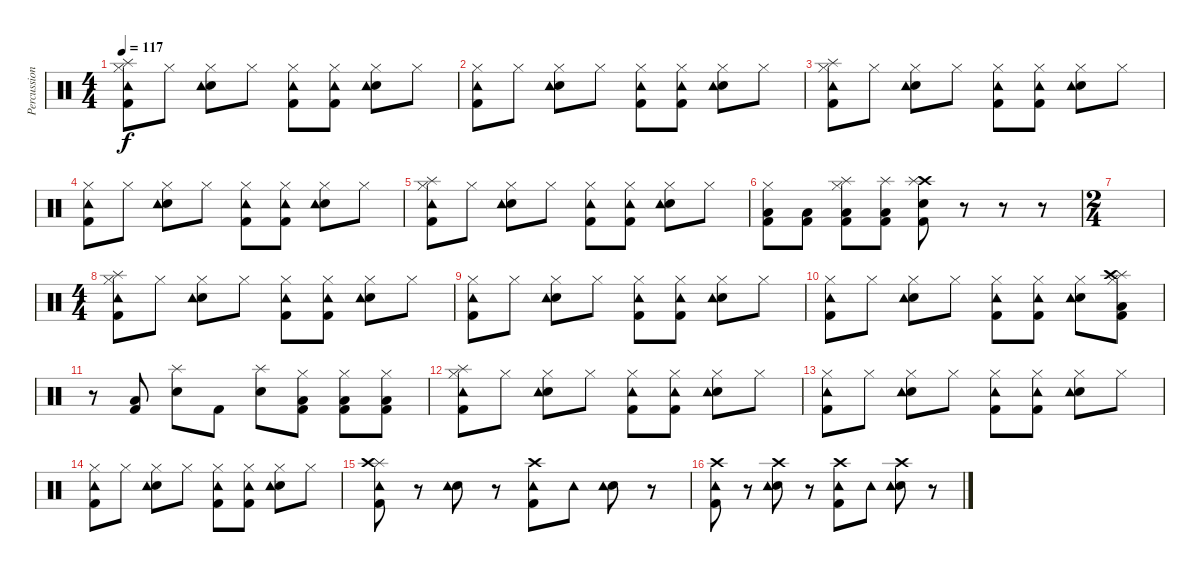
\track ("Percussion" "Percussion") {instrument percussion}
\staff {score}
\articulation defaults
\ts (4 4)
\tempo 117
\clef neutral
\ks c
("Hi-Hat (closed)" "Kick (hit) 2" "Splash (hit)" "Tambourine (hit)").8{dy f} "Hi-Hat (closed)".8 ("Hi-Hat (closed)" "Electric Snare (hit)" "Tambourine (hit)").8 "Hi-Hat (closed)".8 ("Hi-Hat (closed)" "Kick (hit) 2" "Tambourine (hit)").8 ("Hi-Hat (closed)" "Kick (hit) 2" "Tambourine (hit)").8 ("Hi-Hat (closed)" "Electric Snare (hit)" "Tambourine (hit)").8 "Hi-Hat (closed)".8 |
("Hi-Hat (closed)" "Kick (hit) 2" "Tambourine (hit)").8 "Hi-Hat (closed)".8 ("Hi-Hat (closed)" "Electric Snare (hit)" "Tambourine (hit)").8 "Hi-Hat (closed)".8 ("Hi-Hat (closed)" "Kick (hit) 2" "Tambourine (hit)").8 ("Hi-Hat (closed)" "Kick (hit) 2" "Tambourine (hit)").8 ("Hi-Hat (closed)" "Electric Snare (hit)" "Tambourine (hit)").8 "Hi-Hat (closed)".8 |
("Hi-Hat (closed)" "Kick (hit) 2" "Splash (hit)" "Tambourine (hit)").8 "Hi-Hat (closed)".8 ("Hi-Hat (closed)" "Electric Snare (hit)" "Tambourine (hit)").8 "Hi-Hat (closed)".8 ("Hi-Hat (closed)" "Kick (hit) 2" "Tambourine (hit)").8 ("Hi-Hat (closed)" "Kick (hit) 2" "Tambourine (hit)").8 ("Hi-Hat (closed)" "Electric Snare (hit)" "Tambourine (hit)").8 "Hi-Hat (closed)".8 |
("Hi-Hat (closed)" "Kick (hit) 2" "Tambourine (hit)").8 "Hi-Hat (closed)".8 ("Hi-Hat (closed)" "Electric Snare (hit)" "Tambourine (hit)").8 "Hi-Hat (closed)".8 ("Hi-Hat (closed)" "Kick (hit) 2" "Tambourine (hit)").8 ("Hi-Hat (closed)" "Kick (hit) 2" "Tambourine (hit)").8 ("Hi-Hat (closed)" "Electric Snare (hit)" "Tambourine (hit)").8 "Hi-Hat (closed)".8 |
("Hi-Hat (closed)" "Kick (hit) 2" "Splash (hit)" "Tambourine (hit)").8 "Hi-Hat (closed)".8 ("Hi-Hat (closed)" "Electric Snare (hit)" "Tambourine (hit)").8 "Hi-Hat (closed)".8 ("Hi-Hat (closed)" "Kick (hit) 2" "Tambourine (hit)").8 ("Hi-Hat (closed)" "Kick (hit) 2" "Tambourine (hit)").8 ("Hi-Hat (closed)" "Electric Snare (hit)" "Tambourine (hit)").8 "Hi-Hat (closed)".8 |
("Hi-Hat (closed)" "Low Tom (hit)" "Kick (hit) 2").8 ("Low Tom (hit)" "Kick (hit) 2").8 ("Hi-Hat (closed)" "Splash (hit)" "Low Tom (hit)" "Kick (hit) 2").8 ("Splash (hit)" "Low Tom (hit)" "Kick (hit) 2").8 ("Crash high (hit)" "Splash (hit)" "Electric Snare (hit)" "Kick (hit) 2").8 r.8 r.8 r.8 |
\ts (2 4)
|
\ts (4 4)
("Hi-Hat (closed)" "Kick (hit) 2" "Splash (hit)" "Tambourine (hit)").8 "Hi-Hat (closed)".8 ("Hi-Hat (closed)" "Electric Snare (hit)" "Tambourine (hit)").8 "Hi-Hat (closed)".8 ("Hi-Hat (closed)" "Kick (hit) 2" "Tambourine (hit)").8 ("Hi-Hat (closed)" "Kick (hit) 2" "Tambourine (hit)").8 ("Hi-Hat (closed)" "Electric Snare (hit)" "Tambourine (hit)").8 "Hi-Hat (closed)".8 |
("Hi-Hat (closed)" "Kick (hit) 2" "Tambourine (hit)").8 "Hi-Hat (closed)".8 ("Hi-Hat (closed)" "Electric Snare (hit)" "Tambourine (hit)").8 "Hi-Hat (closed)".8 ("Hi-Hat (closed)" "Kick (hit) 2" "Tambourine (hit)").8 ("Hi-Hat (closed)" "Kick (hit) 2" "Tambourine (hit)").8 ("Hi-Hat (closed)" "Electric Snare (hit)" "Tambourine (hit)").8 "Hi-Hat (closed)".8 |
("Hi-Hat (closed)" "Kick (hit) 2" "Tambourine (hit)").8 "Hi-Hat (closed)".8 ("Hi-Hat (closed)" "Electric Snare (hit)" "Tambourine (hit)").8 "Hi-Hat (closed)".8 ("Hi-Hat (closed)" "Kick (hit) 2" "Tambourine (hit)").8 ("Hi-Hat (closed)" "Kick (hit) 2" "Tambourine (hit)").8 ("Hi-Hat (closed)" "Electric Snare (hit)" "Tambourine (hit)").8 ("Hi-Hat (closed)" "Kick (hit) 2" "Splash (hit)" "Low Tom (hit)" "Crash high (hit)").8 |
r.8 ("Kick (hit) 2" "Low Tom (hit)").8 ("Electric Snare (hit)" "Splash (hit)").8 "Kick (hit) 2".8 ("Electric Snare (hit)" "Splash (hit)").8 ("Kick (hit) 2" "Low Tom (hit)" "Hi-Hat (closed)").8 ("Kick (hit) 2" "Low Tom (hit)" "Hi-Hat (closed)").8 ("Kick (hit) 2" "Low Tom (hit)" "Hi-Hat (closed)").8 |
("Hi-Hat (closed)" "Kick (hit) 2" "Splash (hit)" "Tambourine (hit)").8 "Hi-Hat (closed)".8 ("Hi-Hat (closed)" "Electric Snare (hit)" "Tambourine (hit)").8 "Hi-Hat (closed)".8 ("Hi-Hat (closed)" "Kick (hit) 2" "Tambourine (hit)").8 ("Hi-Hat (closed)" "Kick (hit) 2" "Tambourine (hit)").8 ("Hi-Hat (closed)" "Electric Snare (hit)" "Tambourine (hit)").8 "Hi-Hat (closed)".8 |
("Hi-Hat (closed)" "Kick (hit) 2" "Tambourine (hit)").8 "Hi-Hat (closed)".8 ("Hi-Hat (closed)" "Electric Snare (hit)" "Tambourine (hit)").8 "Hi-Hat (closed)".8 ("Hi-Hat (closed)" "Kick (hit) 2" "Tambourine (hit)").8 ("Hi-Hat (closed)" "Kick (hit) 2" "Tambourine (hit)").8 ("Hi-Hat (closed)" "Electric Snare (hit)" "Tambourine (hit)").8 "Hi-Hat (closed)".8 |
("Hi-Hat (closed)" "Kick (hit) 2" "Tambourine (hit)").8 "Hi-Hat (closed)".8 ("Hi-Hat (closed)" "Electric Snare (hit)" "Tambourine (hit)").8 "Hi-Hat (closed)".8 ("Hi-Hat (closed)" "Kick (hit) 2" "Tambourine (hit)").8 ("Hi-Hat (closed)" "Kick (hit) 2" "Tambourine (hit)").8 ("Hi-Hat (closed)" "Electric Snare (hit)" "Tambourine (hit)").8 "Hi-Hat (closed)".8 |
("Kick (hit) 2" "Splash (hit)" "Tambourine (hit)" "Crash high (hit)").8 r.8 ("Electric Snare (hit)" "Tambourine (hit)").8 r.8 ("Kick (hit) 2" "Tambourine (hit)" "Crash high (hit)").8 "Tambourine (hit)".8 ("Electric Snare (hit)" "Tambourine (hit)").8 r.8 |
("Kick (hit) 2" "Tambourine (hit)" "Crash high (hit)").8 r.8 ("Electric Snare (hit)" "Tambourine (hit)" "Crash high (hit)").8 r.8 ("Kick (hit) 2" "Tambourine (hit)" "Crash high (hit)").8 "Tambourine (hit)".8 ("Electric Snare (hit)" "Tambourine (hit)" "Crash high (hit)").8 r.8
